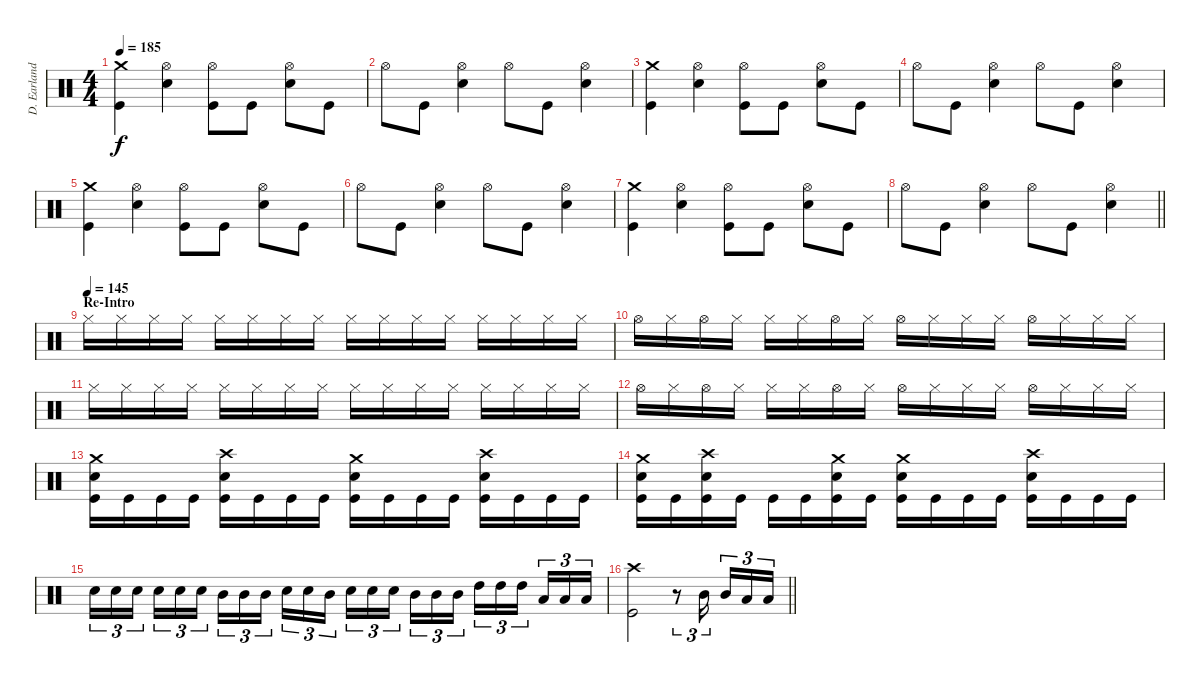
\track ("D. Earlanddson" "D. Earland") {instrument percussion}
\staff {score}
\articulation defaults
\ts (4 4)
\tempo 185
\clef neutral
\ks c
("Crash medium (hit)" "Kick (hit)").4{dy f} ("Hi-Hat (open)" "Electric Snare (hit)").4 ("Hi-Hat (open)" "Kick (hit)").8 "Kick (hit)".8 ("Hi-Hat (open)" "Electric Snare (hit)").8 "Kick (hit)".8 |
"Hi-Hat (open)".8 "Kick (hit)".8 ("Hi-Hat (open)" "Electric Snare (hit)").4 "Hi-Hat (open)".8 "Kick (hit)".8 ("Hi-Hat (open)" "Electric Snare (hit)").4 |
("Crash medium (hit)" "Kick (hit)").4 ("Hi-Hat (open)" "Electric Snare (hit)").4 ("Hi-Hat (open)" "Kick (hit)").8 "Kick (hit)".8 ("Hi-Hat (open)" "Electric Snare (hit)").8 "Kick (hit)".8 |
"Hi-Hat (open)".8 "Kick (hit)".8 ("Hi-Hat (open)" "Electric Snare (hit)").4 "Hi-Hat (open)".8 "Kick (hit)".8 ("Hi-Hat (open)" "Electric Snare (hit)").4 |
("Crash medium (hit)" "Kick (hit)").4 ("Hi-Hat (open)" "Electric Snare (hit)").4 ("Hi-Hat (open)" "Kick (hit)").8 "Kick (hit)".8 ("Hi-Hat (open)" "Electric Snare (hit)").8 "Kick (hit)".8 |
"Hi-Hat (open)".8 "Kick (hit)".8 ("Hi-Hat (open)" "Electric Snare (hit)").4 "Hi-Hat (open)".8 "Kick (hit)".8 ("Hi-Hat (open)" "Electric Snare (hit)").4 |
("Crash medium (hit)" "Kick (hit)").4 ("Hi-Hat (open)" "Electric Snare (hit)").4 ("Hi-Hat (open)" "Kick (hit)").8 "Kick (hit)".8 ("Hi-Hat (open)" "Electric Snare (hit)").8 "Kick (hit)".8 |
\barLineRight lightlight "Hi-Hat (open)".8 "Kick (hit)".8
("Hi-Hat (open)" "Electric Snare (hit)").4 "Hi-Hat (open)".8 "Kick (hit)".8 ("Hi-Hat (open)" "Electric Snare (hit)").4 |
\section ("" "Re-Intro")
\tempo (145)
"Hi-Hat (closed)".16 "Hi-Hat (closed)".16 "Hi-Hat (closed)".16 "Hi-Hat (closed)".16 "Hi-Hat (closed)".16 "Hi-Hat (closed)".16 "Hi-Hat (closed)".16 "Hi-Hat (closed)".16 "Hi-Hat (closed)".16 "Hi-Hat (closed)".16 "Hi-Hat (closed)".16 "Hi-Hat (closed)".16 "Hi-Hat (closed)".16 "Hi-Hat (closed)".16 "Hi-Hat (closed)".16 "Hi-Hat (closed)".16 |
"Hi-Hat (open)".16 "Hi-Hat (closed)".16 "Hi-Hat (open)".16 "Hi-Hat (closed)".16 "Hi-Hat (closed)".16 "Hi-Hat (closed)".16 "Hi-Hat (open)".16 "Hi-Hat (closed)".16 "Hi-Hat (open)".16 "Hi-Hat (closed)".16 "Hi-Hat (closed)".16 "Hi-Hat (closed)".16 "Hi-Hat (open)".16 "Hi-Hat (closed)".16 "Hi-Hat (closed)".16 "Hi-Hat (closed)".16 |
"Hi-Hat (closed)".16 "Hi-Hat (closed)".16 "Hi-Hat (closed)".16 "Hi-Hat (closed)".16 "Hi-Hat (closed)".16 "Hi-Hat (closed)".16 "Hi-Hat (closed)".16 "Hi-Hat (closed)".16 "Hi-Hat (closed)".16 "Hi-Hat (closed)".16 "Hi-Hat (closed)".16 "Hi-Hat (closed)".16 "Hi-Hat (closed)".16 "Hi-Hat (closed)".16 "Hi-Hat (closed)".16 "Hi-Hat (closed)".16 |
"Hi-Hat (open)".16 "Hi-Hat (closed)".16 "Hi-Hat (open)".16 "Hi-Hat (closed)".16 "Hi-Hat (closed)".16 "Hi-Hat (closed)".16 "Hi-Hat (open)".16 "Hi-Hat (closed)".16 "Hi-Hat (open)".16 "Hi-Hat (closed)".16 "Hi-Hat (closed)".16 "Hi-Hat (closed)".16 "Hi-Hat (open)".16 "Hi-Hat (closed)".16 "Hi-Hat (closed)".16 "Hi-Hat (closed)".16 |
("Crash medium (hit)" "Electric Snare (hit)" "Kick (hit)").16 "Kick (hit)".16 "Kick (hit)".16 "Kick (hit)".16 ("Crash high (hit)" "Electric Snare (hit)" "Kick (hit)").16 "Kick (hit)".16 "Kick (hit)".16 "Kick (hit)".16 ("Crash medium (hit)" "Electric Snare (hit)" "Kick (hit)").16 "Kick (hit)".16 "Kick (hit)".16 "Kick (hit)".16 ("Crash high (hit)" "Electric Snare (hit)" "Kick (hit)").16 "Kick (hit)".16 "Kick (hit)".16 "Kick (hit)".16 |
("Crash medium (hit)" "Electric Snare (hit)" "Kick (hit)").16 "Kick (hit)".16 ("Crash high (hit)" "Electric Snare (hit)" "Kick (hit)").16 "Kick (hit)".16 "Kick (hit)".16 "Kick (hit)".16 ("Crash medium (hit)" "Electric Snare (hit)" "Kick (hit)").16 "Kick (hit)".16 ("Crash medium (hit)" "Electric Snare (hit)" "Kick (hit)").16 "Kick (hit)".16 "Kick (hit)".16 "Kick (hit)".16 ("Crash high (hit)" "Electric Snare (hit)" "Kick (hit)").16 "Kick (hit)".16 "Kick (hit)".16 "Kick (hit)".16 |
"Electric Snare (hit)".16{tu (3 2)} "Electric Snare (hit)".16{tu (3 2)} "Electric Snare (hit)".16{tu (3 2)} "Electric Snare (hit)".16{tu (3 2)} "Electric Snare (hit)".16{tu (3 2)} "Electric Snare (hit)".16{tu (3 2)} "Mid Tom (hit)".16{tu (3 2)} "Mid Tom (hit)".16{tu (3 2)} "Mid Tom (hit)".16{tu (3 2)} "Electric Snare (hit)".16{tu (3 2)} "Electric Snare (hit)".16{tu (3 2)} "Mid Tom (hit)".16{tu (3 2)} "Electric Snare (hit)".16{tu (3 2)} "Electric Snare (hit)".16{tu (3 2)} "Electric Snare (hit)".16{tu (3 2)} "Mid Tom (hit)".16{tu (3 2)} "Mid Tom (hit)".16{tu (3 2)} "Mid Tom (hit)".16{tu (3 2)} "High Tom (hit)".16{tu (3 2)} "High Tom (hit)".16{tu (3 2)} "High Tom (hit)".16{tu (3 2)} "Low Tom (hit)".16{tu (3 2)} "Low Tom (hit)".16{tu (3 2)} "Low Tom (hit)".16{tu (3 2)} |
\barLineRight lightlight
("Crash high (hit)" "Kick (hit)").2 r.8{tu (3 2)} "Mid Tom (hit)".16{tu (3 2)} "Mid Tom (hit)".16{tu (3 2)} "Low Tom (hit)".16{tu (3 2)} "Low Tom (hit)".16{tu (3 2)}
